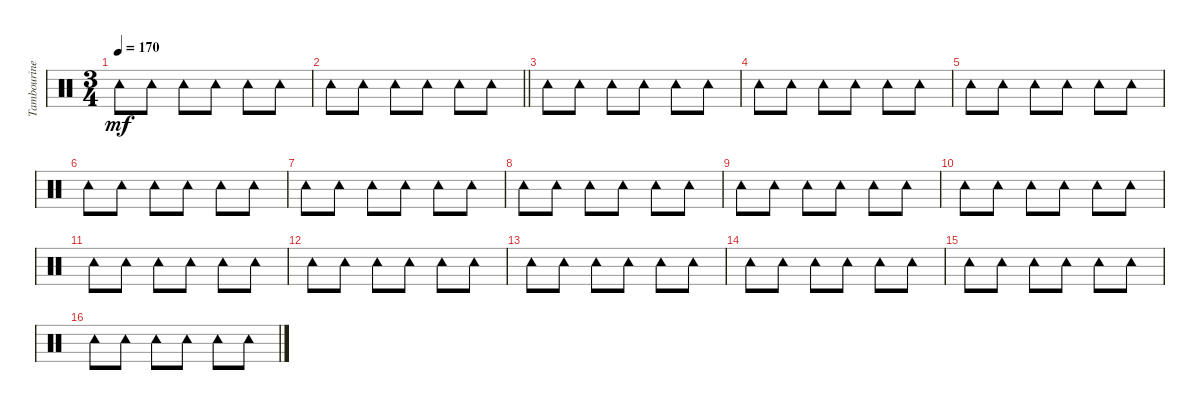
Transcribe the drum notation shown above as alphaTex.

\track ("Tambourine" "Tambourine") {instrument percussion}
\staff {score}
\articulation defaults
\ts (3 4)
\tempo 170
\clef neutral
\ks c "Tambourine (hit)".8{dy mf} "Tambourine (hit)".8 "Tambourine (hit)".8 "Tambourine (hit)".8 "Tambourine (hit)".8 "Tambourine (hit)".8
|
\barLineRight lightlight "Tambourine (hit)".8 "Tambourine (hit)".8 "Tambourine (hit)".8 "Tambourine (hit)".8 "Tambourine (hit)".8 "Tambourine (hit)".8
|
"Tambourine (hit)".8 "Tambourine (hit)".8 "Tambourine (hit)".8 "Tambourine (hit)".8 "Tambourine (hit)".8 "Tambourine (hit)".8 |
"Tambourine (hit)".8 "Tambourine (hit)".8 "Tambourine (hit)".8 "Tambourine (hit)".8 "Tambourine (hit)".8 "Tambourine (hit)".8 |
"Tambourine (hit)".8 "Tambourine (hit)".8 "Tambourine (hit)".8 "Tambourine (hit)".8 "Tambourine (hit)".8 "Tambourine (hit)".8 |
"Tambourine (hit)".8 "Tambourine (hit)".8 "Tambourine (hit)".8 "Tambourine (hit)".8 "Tambourine (hit)".8 "Tambourine (hit)".8 |
"Tambourine (hit)".8 "Tambourine (hit)".8 "Tambourine (hit)".8 "Tambourine (hit)".8 "Tambourine (hit)".8 "Tambourine (hit)".8 |
"Tambourine (hit)".8 "Tambourine (hit)".8 "Tambourine (hit)".8 "Tambourine (hit)".8 "Tambourine (hit)".8 "Tambourine (hit)".8 |
"Tambourine (hit)".8 "Tambourine (hit)".8 "Tambourine (hit)".8 "Tambourine (hit)".8 "Tambourine (hit)".8 "Tambourine (hit)".8 |
"Tambourine (hit)".8 "Tambourine (hit)".8 "Tambourine (hit)".8 "Tambourine (hit)".8 "Tambourine (hit)".8 "Tambourine (hit)".8 |
"Tambourine (hit)".8 "Tambourine (hit)".8 "Tambourine (hit)".8 "Tambourine (hit)".8 "Tambourine (hit)".8 "Tambourine (hit)".8 |
"Tambourine (hit)".8 "Tambourine (hit)".8 "Tambourine (hit)".8 "Tambourine (hit)".8 "Tambourine (hit)".8 "Tambourine (hit)".8 |
"Tambourine (hit)".8 "Tambourine (hit)".8 "Tambourine (hit)".8 "Tambourine (hit)".8 "Tambourine (hit)".8 "Tambourine (hit)".8 |
"Tambourine (hit)".8 "Tambourine (hit)".8 "Tambourine (hit)".8 "Tambourine (hit)".8 "Tambourine (hit)".8 "Tambourine (hit)".8 |
"Tambourine (hit)".8 "Tambourine (hit)".8 "Tambourine (hit)".8 "Tambourine (hit)".8 "Tambourine (hit)".8 "Tambourine (hit)".8 |
"Tambourine (hit)".8 "Tambourine (hit)".8 "Tambourine (hit)".8 "Tambourine (hit)".8 "Tambourine (hit)".8 "Tambourine (hit)".8
